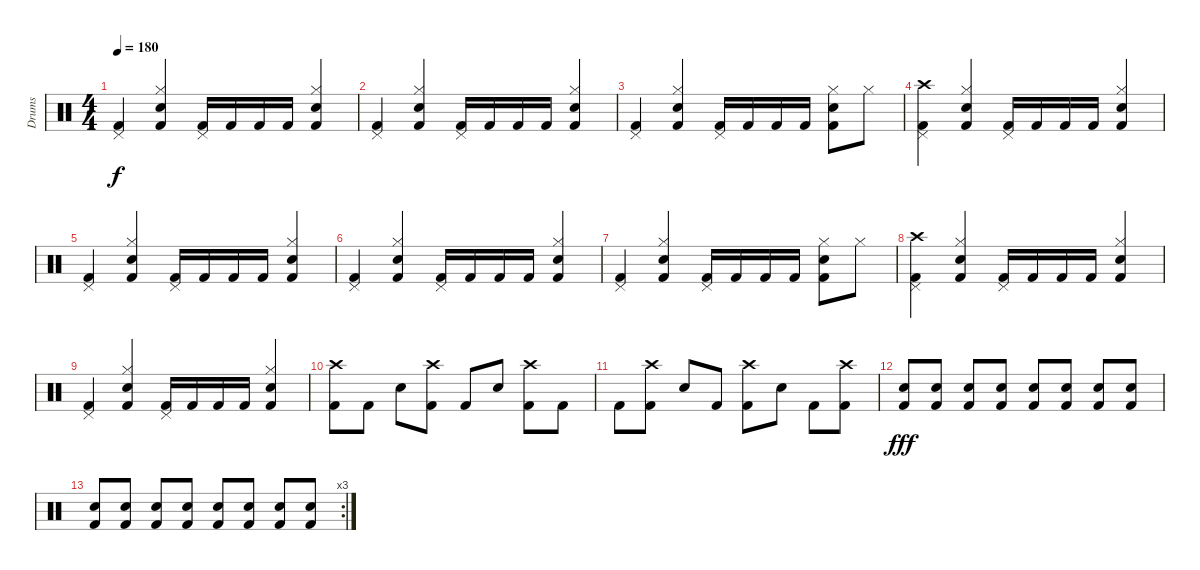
\track ("Drums" "Drums") {instrument percussion}
\staff {score}
\articulation defaults
\ts (4 4)
\tempo 180
\clef neutral
\ks c
("Pedal Hi-Hat (hit)" "Kick (hit) 2").4{dy f} ("Hi-Hat (closed)" "Snare (hit) 2" "Kick (hit) 2").4 ("Pedal Hi-Hat (hit)" "Kick (hit) 2").16 "Kick (hit) 2".16 "Kick (hit) 2".16 "Kick (hit) 2".16 ("Hi-Hat (closed)" "Snare (hit) 2" "Kick (hit) 2").4 |
("Pedal Hi-Hat (hit)" "Kick (hit) 2").4 ("Hi-Hat (closed)" "Snare (hit) 2" "Kick (hit) 2").4 ("Pedal Hi-Hat (hit)" "Kick (hit) 2").16 "Kick (hit) 2".16 "Kick (hit) 2".16 "Kick (hit) 2".16 ("Hi-Hat (closed)" "Snare (hit) 2" "Kick (hit) 2").4 |
("Pedal Hi-Hat (hit)" "Kick (hit) 2").4 ("Hi-Hat (closed)" "Snare (hit) 2" "Kick (hit) 2").4 ("Pedal Hi-Hat (hit)" "Kick (hit) 2").16 "Kick (hit) 2".16 "Kick (hit) 2".16 "Kick (hit) 2".16 ("Hi-Hat (closed)" "Snare (hit) 2" "Kick (hit) 2").8 "Hi-Hat (closed)".8 |
("Crash high (hit)" "Pedal Hi-Hat (hit)" "Kick (hit) 2").4 ("Hi-Hat (closed)" "Snare (hit) 2" "Kick (hit) 2").4 ("Pedal Hi-Hat (hit)" "Kick (hit) 2").16 "Kick (hit) 2".16 "Kick (hit) 2".16 "Kick (hit) 2".16 ("Hi-Hat (closed)" "Snare (hit) 2" "Kick (hit) 2").4 |
("Pedal Hi-Hat (hit)" "Kick (hit) 2").4 ("Hi-Hat (closed)" "Snare (hit) 2" "Kick (hit) 2").4 ("Pedal Hi-Hat (hit)" "Kick (hit) 2").16 "Kick (hit) 2".16 "Kick (hit) 2".16 "Kick (hit) 2".16 ("Hi-Hat (closed)" "Snare (hit) 2" "Kick (hit) 2").4 |
("Pedal Hi-Hat (hit)" "Kick (hit) 2").4 ("Hi-Hat (closed)" "Snare (hit) 2" "Kick (hit) 2").4 ("Pedal Hi-Hat (hit)" "Kick (hit) 2").16 "Kick (hit) 2".16 "Kick (hit) 2".16 "Kick (hit) 2".16 ("Hi-Hat (closed)" "Snare (hit) 2" "Kick (hit) 2").4 |
("Pedal Hi-Hat (hit)" "Kick (hit) 2").4 ("Hi-Hat (closed)" "Snare (hit) 2" "Kick (hit) 2").4 ("Pedal Hi-Hat (hit)" "Kick (hit) 2").16 "Kick (hit) 2".16 "Kick (hit) 2".16 "Kick (hit) 2".16 ("Hi-Hat (closed)" "Snare (hit) 2" "Kick (hit) 2").8 "Hi-Hat (closed)".8 |
("Crash high (hit)" "Pedal Hi-Hat (hit)" "Kick (hit) 2").4 ("Hi-Hat (closed)" "Snare (hit) 2" "Kick (hit) 2").4 ("Pedal Hi-Hat (hit)" "Kick (hit) 2").16 "Kick (hit) 2".16 "Kick (hit) 2".16 "Kick (hit) 2".16 ("Hi-Hat (closed)" "Snare (hit) 2" "Kick (hit) 2").4 |
("Pedal Hi-Hat (hit)" "Kick (hit) 2").4 ("Hi-Hat (closed)" "Snare (hit) 2" "Kick (hit) 2").4 ("Pedal Hi-Hat (hit)" "Kick (hit) 2").16 "Kick (hit) 2".16 "Kick (hit) 2".16 "Kick (hit) 2".16 ("Hi-Hat (closed)" "Snare (hit) 2" "Kick (hit) 2").4 |
("Crash high (hit)" "Kick (hit) 2").8 "Kick (hit) 2".8 "Snare (hit) 2".8 ("Crash high (hit)" "Kick (hit) 2").8 "Kick (hit) 2".8 "Snare (hit) 2".8 ("Crash high (hit)" "Kick (hit) 2").8 "Kick (hit) 2".8 |
"Kick (hit) 2".8 ("Crash high (hit)" "Kick (hit) 2").8 "Snare (hit) 2".8 "Kick (hit) 2".8 ("Crash high (hit)" "Kick (hit) 2").8 "Snare (hit) 2".8 "Kick (hit) 2".8 ("Crash high (hit)" "Kick (hit) 2").8 |
("Snare (hit) 2" "Kick (hit) 2").8{dy fff} ("Snare (hit) 2" "Kick (hit) 2").8 ("Snare (hit) 2" "Kick (hit) 2").8 ("Snare (hit) 2" "Kick (hit) 2").8 ("Snare (hit) 2" "Kick (hit) 2").8 ("Snare (hit) 2" "Kick (hit) 2").8 ("Snare (hit) 2" "Kick (hit) 2").8 ("Snare (hit) 2" "Kick (hit) 2").8 |
\rc 3
("Snare (hit) 2" "Kick (hit) 2").8 ("Snare (hit) 2" "Kick (hit) 2").8 ("Snare (hit) 2" "Kick (hit) 2").8 ("Snare (hit) 2" "Kick (hit) 2").8 ("Snare (hit) 2" "Kick (hit) 2").8 ("Snare (hit) 2" "Kick (hit) 2").8 ("Snare (hit) 2" "Kick (hit) 2").8 ("Snare (hit) 2" "Kick (hit) 2").8
